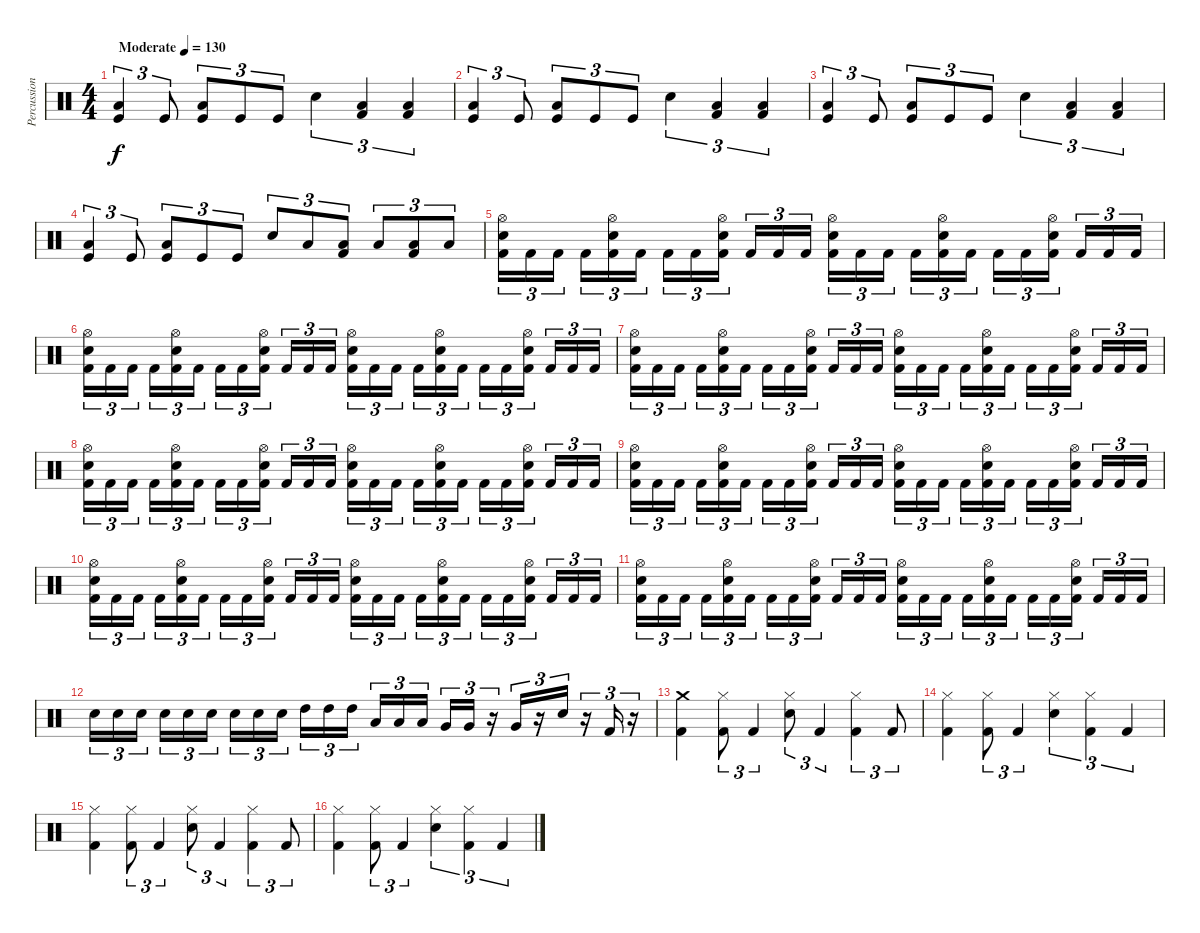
\track ("Percussion" "Percussion") {instrument percussion}
\staff {score}
\articulation defaults
\ts (4 4)
\tempo (130 "Moderate")
\clef neutral
\ks c
("Kick (hit)" "Low Floor Tom (hit)").4{tu (3 2) dy f} "Kick (hit)".8{tu (3 2)} ("Kick (hit)" "Low Tom (hit)").8{tu (3 2)} "Kick (hit)".8{tu (3 2)} "Kick (hit)".8{tu (3 2)} "Snare (hit) 2".4{tu (3 2)} ("Kick (hit) 2" "Low Floor Tom (hit)").4{tu (3 2)} ("Kick (hit) 2" "Low Floor Tom (hit)").4{tu (3 2)} |
("Kick (hit)" "Low Floor Tom (hit)").4{tu (3 2)} "Kick (hit)".8{tu (3 2)} ("Kick (hit)" "Low Tom (hit)").8{tu (3 2)} "Kick (hit)".8{tu (3 2)} "Kick (hit)".8{tu (3 2)} "Snare (hit) 2".4{tu (3 2)} ("Kick (hit) 2" "Low Floor Tom (hit)").4{tu (3 2)} ("Kick (hit) 2" "Low Floor Tom (hit)").4{tu (3 2)} |
("Kick (hit)" "Low Floor Tom (hit)").4{tu (3 2)} "Kick (hit)".8{tu (3 2)} ("Kick (hit)" "Low Tom (hit)").8{tu (3 2)} "Kick (hit)".8{tu (3 2)} "Kick (hit)".8{tu (3 2)} "Snare (hit) 2".4{tu (3 2)} ("Kick (hit) 2" "Low Floor Tom (hit)").4{tu (3 2)} ("Kick (hit) 2" "Low Floor Tom (hit)").4{tu (3 2)} |
("Kick (hit)" "Low Floor Tom (hit)").4{tu (3 2)} "Kick (hit)".8{tu (3 2)} ("Kick (hit)" "Low Tom (hit)").8{tu (3 2)} "Kick (hit)".8{tu (3 2)} "Kick (hit)".8{tu (3 2)} "Snare (hit) 2".8{tu (3 2)} "Low Floor Tom (hit)".8{tu (3 2)} ("Kick (hit) 2" "Low Floor Tom (hit)").8{tu (3 2)} "Low Tom (hit)".8{tu (3 2)} ("Kick (hit) 2" "Low Floor Tom (hit)").8{tu (3 2)} "Low Tom (hit)".8{tu (3 2)} |
("Kick (hit) 2" "Snare (hit) 2" "Hi-Hat (open)").16{tu (3 2)} "Kick (hit) 2".16{tu (3 2)} "Kick (hit) 2".16{tu (3 2) beam splitsecondary} "Kick (hit) 2".16{tu (3 2)} ("Kick (hit) 2" "Snare (hit) 2" "Hi-Hat (open)").16{tu (3 2)} "Kick (hit) 2".16{tu (3 2)} "Kick (hit) 2".16{tu (3 2)} "Kick (hit) 2".16{tu (3 2)} ("Kick (hit) 2" "Snare (hit) 2" "Hi-Hat (open)").16{tu (3 2) beam splitsecondary} "Kick (hit) 2".16{tu (3 2)} "Kick (hit) 2".16{tu (3 2)} "Kick (hit) 2".16{tu (3 2)} ("Kick (hit) 2" "Snare (hit) 2" "Hi-Hat (open)").16{tu (3 2)} "Kick (hit) 2".16{tu (3 2)} "Kick (hit) 2".16{tu (3 2) beam splitsecondary} "Kick (hit) 2".16{tu (3 2)} ("Kick (hit) 2" "Snare (hit) 2" "Hi-Hat (open)").16{tu (3 2)} "Kick (hit) 2".16{tu (3 2)} "Kick (hit) 2".16{tu (3 2)} "Kick (hit) 2".16{tu (3 2)} ("Kick (hit) 2" "Snare (hit) 2" "Hi-Hat (open)").16{tu (3 2) beam splitsecondary} "Kick (hit) 2".16{tu (3 2)} "Kick (hit) 2".16{tu (3 2)} "Kick (hit) 2".16{tu (3 2)} |
("Kick (hit) 2" "Snare (hit) 2" "Hi-Hat (open)").16{tu (3 2)} "Kick (hit) 2".16{tu (3 2)} "Kick (hit) 2".16{tu (3 2) beam splitsecondary} "Kick (hit) 2".16{tu (3 2)} ("Kick (hit) 2" "Snare (hit) 2" "Hi-Hat (open)").16{tu (3 2)} "Kick (hit) 2".16{tu (3 2)} "Kick (hit) 2".16{tu (3 2)} "Kick (hit) 2".16{tu (3 2)} ("Kick (hit) 2" "Snare (hit) 2" "Hi-Hat (open)").16{tu (3 2) beam splitsecondary} "Kick (hit) 2".16{tu (3 2)} "Kick (hit) 2".16{tu (3 2)} "Kick (hit) 2".16{tu (3 2)} ("Kick (hit) 2" "Snare (hit) 2" "Hi-Hat (open)").16{tu (3 2)} "Kick (hit) 2".16{tu (3 2)} "Kick (hit) 2".16{tu (3 2) beam splitsecondary} "Kick (hit) 2".16{tu (3 2)} ("Kick (hit) 2" "Snare (hit) 2" "Hi-Hat (open)").16{tu (3 2)} "Kick (hit) 2".16{tu (3 2)} "Kick (hit) 2".16{tu (3 2)} "Kick (hit) 2".16{tu (3 2)} ("Kick (hit) 2" "Snare (hit) 2" "Hi-Hat (open)").16{tu (3 2) beam splitsecondary} "Kick (hit) 2".16{tu (3 2)} "Kick (hit) 2".16{tu (3 2)} "Kick (hit) 2".16{tu (3 2)} |
("Kick (hit) 2" "Snare (hit) 2" "Hi-Hat (open)").16{tu (3 2)} "Kick (hit) 2".16{tu (3 2)} "Kick (hit) 2".16{tu (3 2) beam splitsecondary} "Kick (hit) 2".16{tu (3 2)} ("Kick (hit) 2" "Snare (hit) 2" "Hi-Hat (open)").16{tu (3 2)} "Kick (hit) 2".16{tu (3 2)} "Kick (hit) 2".16{tu (3 2)} "Kick (hit) 2".16{tu (3 2)} ("Kick (hit) 2" "Snare (hit) 2" "Hi-Hat (open)").16{tu (3 2) beam splitsecondary} "Kick (hit) 2".16{tu (3 2)} "Kick (hit) 2".16{tu (3 2)} "Kick (hit) 2".16{tu (3 2)} ("Kick (hit) 2" "Snare (hit) 2" "Hi-Hat (open)").16{tu (3 2)} "Kick (hit) 2".16{tu (3 2)} "Kick (hit) 2".16{tu (3 2) beam splitsecondary} "Kick (hit) 2".16{tu (3 2)} ("Kick (hit) 2" "Snare (hit) 2" "Hi-Hat (open)").16{tu (3 2)} "Kick (hit) 2".16{tu (3 2)} "Kick (hit) 2".16{tu (3 2)} "Kick (hit) 2".16{tu (3 2)} ("Kick (hit) 2" "Snare (hit) 2" "Hi-Hat (open)").16{tu (3 2) beam splitsecondary} "Kick (hit) 2".16{tu (3 2)} "Kick (hit) 2".16{tu (3 2)} "Kick (hit) 2".16{tu (3 2)} |
("Kick (hit) 2" "Snare (hit) 2" "Hi-Hat (open)").16{tu (3 2)} "Kick (hit) 2".16{tu (3 2)} "Kick (hit) 2".16{tu (3 2) beam splitsecondary} "Kick (hit) 2".16{tu (3 2)} ("Kick (hit) 2" "Snare (hit) 2" "Hi-Hat (open)").16{tu (3 2)} "Kick (hit) 2".16{tu (3 2)} "Kick (hit) 2".16{tu (3 2)} "Kick (hit) 2".16{tu (3 2)} ("Kick (hit) 2" "Snare (hit) 2" "Hi-Hat (open)").16{tu (3 2) beam splitsecondary} "Kick (hit) 2".16{tu (3 2)} "Kick (hit) 2".16{tu (3 2)} "Kick (hit) 2".16{tu (3 2)} ("Kick (hit) 2" "Snare (hit) 2" "Hi-Hat (open)").16{tu (3 2)} "Kick (hit) 2".16{tu (3 2)} "Kick (hit) 2".16{tu (3 2) beam splitsecondary} "Kick (hit) 2".16{tu (3 2)} ("Kick (hit) 2" "Snare (hit) 2" "Hi-Hat (open)").16{tu (3 2)} "Kick (hit) 2".16{tu (3 2)} "Kick (hit) 2".16{tu (3 2)} "Kick (hit) 2".16{tu (3 2)} ("Kick (hit) 2" "Snare (hit) 2" "Hi-Hat (open)").16{tu (3 2) beam splitsecondary} "Kick (hit) 2".16{tu (3 2)} "Kick (hit) 2".16{tu (3 2)} "Kick (hit) 2".16{tu (3 2)} |
("Kick (hit) 2" "Snare (hit) 2" "Hi-Hat (open)").16{tu (3 2)} "Kick (hit) 2".16{tu (3 2)} "Kick (hit) 2".16{tu (3 2) beam splitsecondary} "Kick (hit) 2".16{tu (3 2)} ("Kick (hit) 2" "Snare (hit) 2" "Hi-Hat (open)").16{tu (3 2)} "Kick (hit) 2".16{tu (3 2)} "Kick (hit) 2".16{tu (3 2)} "Kick (hit) 2".16{tu (3 2)} ("Kick (hit) 2" "Snare (hit) 2" "Hi-Hat (open)").16{tu (3 2) beam splitsecondary} "Kick (hit) 2".16{tu (3 2)} "Kick (hit) 2".16{tu (3 2)} "Kick (hit) 2".16{tu (3 2)} ("Kick (hit) 2" "Snare (hit) 2" "Hi-Hat (open)").16{tu (3 2)} "Kick (hit) 2".16{tu (3 2)} "Kick (hit) 2".16{tu (3 2) beam splitsecondary} "Kick (hit) 2".16{tu (3 2)} ("Kick (hit) 2" "Snare (hit) 2" "Hi-Hat (open)").16{tu (3 2)} "Kick (hit) 2".16{tu (3 2)} "Kick (hit) 2".16{tu (3 2)} "Kick (hit) 2".16{tu (3 2)} ("Kick (hit) 2" "Snare (hit) 2" "Hi-Hat (open)").16{tu (3 2) beam splitsecondary} "Kick (hit) 2".16{tu (3 2)} "Kick (hit) 2".16{tu (3 2)} "Kick (hit) 2".16{tu (3 2)} |
("Kick (hit) 2" "Snare (hit) 2" "Hi-Hat (open)").16{tu (3 2)} "Kick (hit) 2".16{tu (3 2)} "Kick (hit) 2".16{tu (3 2) beam splitsecondary} "Kick (hit) 2".16{tu (3 2)} ("Kick (hit) 2" "Snare (hit) 2" "Hi-Hat (open)").16{tu (3 2)} "Kick (hit) 2".16{tu (3 2)} "Kick (hit) 2".16{tu (3 2)} "Kick (hit) 2".16{tu (3 2)} ("Kick (hit) 2" "Snare (hit) 2" "Hi-Hat (open)").16{tu (3 2) beam splitsecondary} "Kick (hit) 2".16{tu (3 2)} "Kick (hit) 2".16{tu (3 2)} "Kick (hit) 2".16{tu (3 2)} ("Kick (hit) 2" "Snare (hit) 2" "Hi-Hat (open)").16{tu (3 2)} "Kick (hit) 2".16{tu (3 2)} "Kick (hit) 2".16{tu (3 2) beam splitsecondary} "Kick (hit) 2".16{tu (3 2)} ("Kick (hit) 2" "Snare (hit) 2" "Hi-Hat (open)").16{tu (3 2)} "Kick (hit) 2".16{tu (3 2)} "Kick (hit) 2".16{tu (3 2)} "Kick (hit) 2".16{tu (3 2)} ("Kick (hit) 2" "Snare (hit) 2" "Hi-Hat (open)").16{tu (3 2) beam splitsecondary} "Kick (hit) 2".16{tu (3 2)} "Kick (hit) 2".16{tu (3 2)} "Kick (hit) 2".16{tu (3 2)} |
("Kick (hit) 2" "Snare (hit) 2" "Hi-Hat (open)").16{tu (3 2)} "Kick (hit) 2".16{tu (3 2)} "Kick (hit) 2".16{tu (3 2) beam splitsecondary} "Kick (hit) 2".16{tu (3 2)} ("Kick (hit) 2" "Snare (hit) 2" "Hi-Hat (open)").16{tu (3 2)} "Kick (hit) 2".16{tu (3 2)} "Kick (hit) 2".16{tu (3 2)} "Kick (hit) 2".16{tu (3 2)} ("Kick (hit) 2" "Snare (hit) 2" "Hi-Hat (open)").16{tu (3 2) beam splitsecondary} "Kick (hit) 2".16{tu (3 2)} "Kick (hit) 2".16{tu (3 2)} "Kick (hit) 2".16{tu (3 2)} ("Kick (hit) 2" "Snare (hit) 2" "Hi-Hat (open)").16{tu (3 2)} "Kick (hit) 2".16{tu (3 2)} "Kick (hit) 2".16{tu (3 2) beam splitsecondary} "Kick (hit) 2".16{tu (3 2)} ("Kick (hit) 2" "Snare (hit) 2" "Hi-Hat (open)").16{tu (3 2)} "Kick (hit) 2".16{tu (3 2)} "Kick (hit) 2".16{tu (3 2)} "Kick (hit) 2".16{tu (3 2)} ("Kick (hit) 2" "Snare (hit) 2" "Hi-Hat (open)").16{tu (3 2) beam splitsecondary} "Kick (hit) 2".16{tu (3 2)} "Kick (hit) 2".16{tu (3 2)} "Kick (hit) 2".16{tu (3 2)} |
"Snare (hit) 2".16{tu (3 2)} "Snare (hit) 2".16{tu (3 2)} "Snare (hit) 2".16{tu (3 2) beam splitsecondary} "Snare (hit) 2".16{tu (3 2)} "Snare (hit) 2".16{tu (3 2)} "Snare (hit) 2".16{tu (3 2)} "Snare (hit) 2".16{tu (3 2)} "Snare (hit) 2".16{tu (3 2)} "Snare (hit) 2".16{tu (3 2) beam splitsecondary} "High Tom (hit)".16{tu (3 2)} "High Tom (hit)".16{tu (3 2)} "High Tom (hit)".16{tu (3 2)} "Low Tom (hit)".16{tu (3 2)} "Low Tom (hit)".16{tu (3 2)} "Low Tom (hit)".16{tu (3 2) beam splitsecondary} "Very Low Tom (hit)".16{tu (3 2)} "Very Low Tom (hit)".16{tu (3 2)} r.16{tu (3 2)} "Very Low Tom (hit)".16{tu (3 2)} r.16{tu (3 2)} "Snare (hit) 2".16{tu (3 2)} r.16{tu (3 2)} "Kick (hit) 2".16{tu (3 2)} r.16{tu (3 2)} |
("Kick (hit) 2" "Crash medium (hit)").4 ("Kick (hit) 2" "Hi-Hat (closed)").8{tu (3 2)} "Kick (hit) 2".4{tu (3 2)} ("Snare (hit) 2" "Hi-Hat (closed)").8{tu (3 2)} "Kick (hit) 2".4{tu (3 2)} ("Kick (hit) 2" "Hi-Hat (closed)").4{tu (3 2)} "Kick (hit) 2".8{tu (3 2)} |
("Kick (hit) 2" "Hi-Hat (closed)").4 ("Kick (hit) 2" "Hi-Hat (closed)").8{tu (3 2)} "Kick (hit) 2".4{tu (3 2)} ("Snare (hit) 2" "Hi-Hat (closed)").4{tu (3 2)} ("Kick (hit) 2" "Hi-Hat (closed)").4{tu (3 2)} "Kick (hit) 2".4{tu (3 2)} |
("Kick (hit) 2" "Hi-Hat (closed)").4 ("Kick (hit) 2" "Hi-Hat (closed)").8{tu (3 2)} "Kick (hit) 2".4{tu (3 2)} ("Snare (hit) 2" "Hi-Hat (closed)").8{tu (3 2)} "Kick (hit) 2".4{tu (3 2)} ("Kick (hit) 2" "Hi-Hat (closed)").4{tu (3 2)} "Kick (hit) 2".8{tu (3 2)} |
("Kick (hit) 2" "Hi-Hat (closed)").4 ("Kick (hit) 2" "Hi-Hat (closed)").8{tu (3 2)} "Kick (hit) 2".4{tu (3 2)} ("Snare (hit) 2" "Hi-Hat (closed)").4{tu (3 2)} ("Kick (hit) 2" "Hi-Hat (closed)").4{tu (3 2)} "Kick (hit) 2".4{tu (3 2)}
